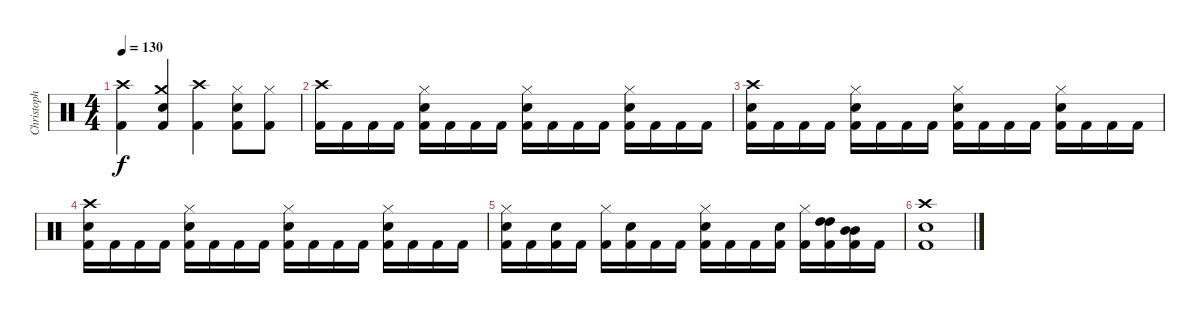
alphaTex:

\track ("Christoph" "Christoph") {instrument percussion}
\staff {score}
\articulation defaults
\ts (4 4)
\tempo 130
\clef neutral
\ks c
("Crash high (hit)" "Kick (hit) 2").4{dy f} ("Crash medium (hit)" "Electric Snare (hit)" "Kick (hit) 2").4 ("Crash high (hit)" "Kick (hit) 2").4 ("Hi-Hat (closed)" "Electric Snare (hit)" "Kick (hit) 2").8 ("Hi-Hat (closed)" "Kick (hit) 2").8 |
("Crash high (hit)" "Kick (hit) 2").16 "Kick (hit) 2".16 "Kick (hit) 2".16 "Kick (hit) 2".16 ("Hi-Hat (closed)" "Electric Snare (hit)" "Kick (hit) 2").16 "Kick (hit) 2".16 "Kick (hit) 2".16 "Kick (hit) 2".16 ("Hi-Hat (closed)" "Electric Snare (hit)" "Kick (hit) 2").16 "Kick (hit) 2".16 "Kick (hit) 2".16 "Kick (hit) 2".16 ("Hi-Hat (closed)" "Electric Snare (hit)" "Kick (hit) 2").16 "Kick (hit) 2".16 "Kick (hit) 2".16 "Kick (hit) 2".16 |
("Crash high (hit)" "Electric Snare (hit)" "Kick (hit) 2").16 "Kick (hit) 2".16 "Kick (hit) 2".16 "Kick (hit) 2".16 ("Hi-Hat (closed)" "Electric Snare (hit)" "Kick (hit) 2").16 "Kick (hit) 2".16 "Kick (hit) 2".16 "Kick (hit) 2".16 ("Hi-Hat (closed)" "Electric Snare (hit)" "Kick (hit) 2").16 "Kick (hit) 2".16 "Kick (hit) 2".16 "Kick (hit) 2".16 ("Hi-Hat (closed)" "Electric Snare (hit)" "Kick (hit) 2").16 "Kick (hit) 2".16 "Kick (hit) 2".16 "Kick (hit) 2".16 |
("Crash high (hit)" "Electric Snare (hit)" "Kick (hit) 2").16 "Kick (hit) 2".16 "Kick (hit) 2".16 "Kick (hit) 2".16 ("Hi-Hat (closed)" "Electric Snare (hit)" "Kick (hit) 2").16 "Kick (hit) 2".16 "Kick (hit) 2".16 "Kick (hit) 2".16 ("Hi-Hat (closed)" "Electric Snare (hit)" "Kick (hit) 2").16 "Kick (hit) 2".16 "Kick (hit) 2".16 "Kick (hit) 2".16 ("Hi-Hat (closed)" "Electric Snare (hit)" "Kick (hit) 2").16 "Kick (hit) 2".16 "Kick (hit) 2".16 "Kick (hit) 2".16 |
("Hi-Hat (closed)" "Electric Snare (hit)" "Kick (hit) 2").16 "Kick (hit) 2".16 ("Electric Snare (hit)" "Kick (hit) 2").16 "Kick (hit) 2".16 ("Hi-Hat (closed)" "Kick (hit) 2").16 ("Electric Snare (hit)" "Kick (hit) 2").16 "Kick (hit) 2".16 "Kick (hit) 2".16 ("Hi-Hat (closed)" "Electric Snare (hit)" "Kick (hit) 2").16 "Kick (hit) 2".16 "Kick (hit) 2".16 ("Electric Snare (hit)" "Kick (hit) 2").16 ("Hi-Hat (closed)" "Kick (hit) 2").16 ("High Tom (hit)" "High Tom (hit)" "Kick (hit) 2").16 ("Mid Tom (hit)" "Mid Tom (hit)" "Kick (hit) 2").16 "Kick (hit) 2".16 |
("Crash high (hit)" "Electric Snare (hit)" "Kick (hit) 2").1
